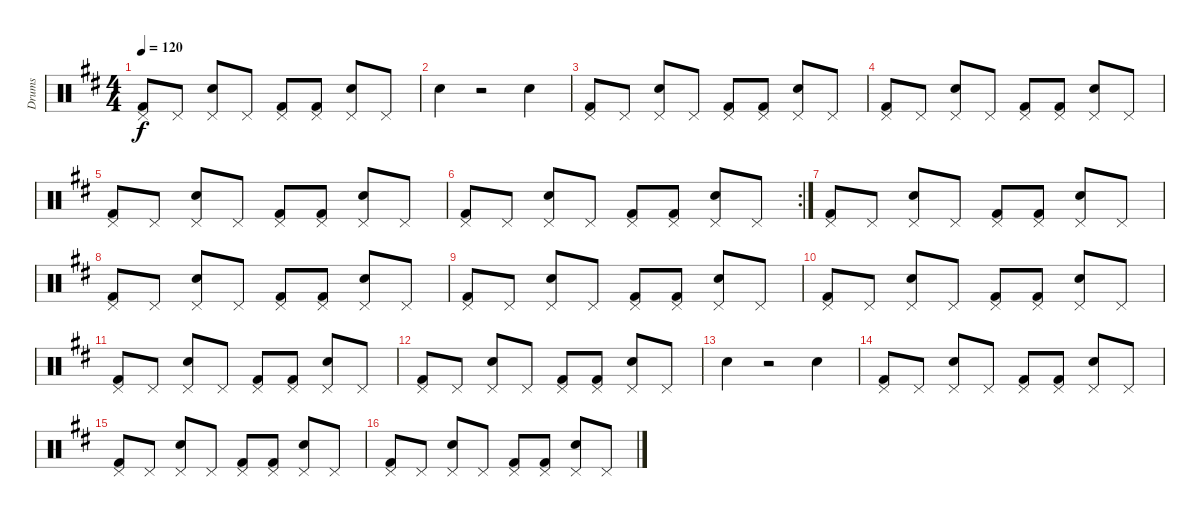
\track ("Drums" "Drums") {instrument percussion}
\staff {score}
\articulation defaults
\ts (4 4)
\tempo 120
\clef neutral
\ks d
("Pedal Hi-Hat (hit)" "Kick (hit) 2").8{dy f} "Pedal Hi-Hat (hit)".8 ("Pedal Hi-Hat (hit)" "Electric Snare (hit)").8 "Pedal Hi-Hat (hit)".8 ("Pedal Hi-Hat (hit)" "Kick (hit) 2").8 ("Pedal Hi-Hat (hit)" "Kick (hit) 2").8 ("Pedal Hi-Hat (hit)" "Electric Snare (hit)").8 "Pedal Hi-Hat (hit)".8 |
"Electric Snare (hit)".4 r.2 "Electric Snare (hit)".4 |
("Pedal Hi-Hat (hit)" "Kick (hit) 2").8 "Pedal Hi-Hat (hit)".8 ("Pedal Hi-Hat (hit)" "Electric Snare (hit)").8 "Pedal Hi-Hat (hit)".8 ("Pedal Hi-Hat (hit)" "Kick (hit) 2").8 ("Pedal Hi-Hat (hit)" "Kick (hit) 2").8 ("Pedal Hi-Hat (hit)" "Electric Snare (hit)").8 "Pedal Hi-Hat (hit)".8 |
("Pedal Hi-Hat (hit)" "Kick (hit) 2").8 "Pedal Hi-Hat (hit)".8 ("Pedal Hi-Hat (hit)" "Electric Snare (hit)").8 "Pedal Hi-Hat (hit)".8 ("Pedal Hi-Hat (hit)" "Kick (hit) 2").8 ("Pedal Hi-Hat (hit)" "Kick (hit) 2").8 ("Pedal Hi-Hat (hit)" "Electric Snare (hit)").8 "Pedal Hi-Hat (hit)".8 |
("Pedal Hi-Hat (hit)" "Kick (hit) 2").8 "Pedal Hi-Hat (hit)".8 ("Pedal Hi-Hat (hit)" "Electric Snare (hit)").8 "Pedal Hi-Hat (hit)".8 ("Pedal Hi-Hat (hit)" "Kick (hit) 2").8 ("Pedal Hi-Hat (hit)" "Kick (hit) 2").8 ("Pedal Hi-Hat (hit)" "Electric Snare (hit)").8 "Pedal Hi-Hat (hit)".8 |
\rc 2
("Pedal Hi-Hat (hit)" "Kick (hit) 2").8 "Pedal Hi-Hat (hit)".8 ("Pedal Hi-Hat (hit)" "Electric Snare (hit)").8 "Pedal Hi-Hat (hit)".8 ("Pedal Hi-Hat (hit)" "Kick (hit) 2").8 ("Pedal Hi-Hat (hit)" "Kick (hit) 2").8 ("Pedal Hi-Hat (hit)" "Electric Snare (hit)").8 "Pedal Hi-Hat (hit)".8 |
("Pedal Hi-Hat (hit)" "Kick (hit) 2").8 "Pedal Hi-Hat (hit)".8 ("Pedal Hi-Hat (hit)" "Electric Snare (hit)").8 "Pedal Hi-Hat (hit)".8 ("Pedal Hi-Hat (hit)" "Kick (hit) 2").8 ("Pedal Hi-Hat (hit)" "Kick (hit) 2").8 ("Pedal Hi-Hat (hit)" "Electric Snare (hit)").8 "Pedal Hi-Hat (hit)".8 |
("Pedal Hi-Hat (hit)" "Kick (hit) 2").8 "Pedal Hi-Hat (hit)".8 ("Pedal Hi-Hat (hit)" "Electric Snare (hit)").8 "Pedal Hi-Hat (hit)".8 ("Pedal Hi-Hat (hit)" "Kick (hit) 2").8 ("Pedal Hi-Hat (hit)" "Kick (hit) 2").8 ("Pedal Hi-Hat (hit)" "Electric Snare (hit)").8 "Pedal Hi-Hat (hit)".8 |
("Pedal Hi-Hat (hit)" "Kick (hit) 2").8 "Pedal Hi-Hat (hit)".8 ("Pedal Hi-Hat (hit)" "Electric Snare (hit)").8 "Pedal Hi-Hat (hit)".8 ("Pedal Hi-Hat (hit)" "Kick (hit) 2").8 ("Pedal Hi-Hat (hit)" "Kick (hit) 2").8 ("Pedal Hi-Hat (hit)" "Electric Snare (hit)").8 "Pedal Hi-Hat (hit)".8 |
("Pedal Hi-Hat (hit)" "Kick (hit) 2").8 "Pedal Hi-Hat (hit)".8 ("Pedal Hi-Hat (hit)" "Electric Snare (hit)").8 "Pedal Hi-Hat (hit)".8 ("Pedal Hi-Hat (hit)" "Kick (hit) 2").8 ("Pedal Hi-Hat (hit)" "Kick (hit) 2").8 ("Pedal Hi-Hat (hit)" "Electric Snare (hit)").8 "Pedal Hi-Hat (hit)".8 |
("Pedal Hi-Hat (hit)" "Kick (hit) 2").8 "Pedal Hi-Hat (hit)".8 ("Pedal Hi-Hat (hit)" "Electric Snare (hit)").8 "Pedal Hi-Hat (hit)".8 ("Pedal Hi-Hat (hit)" "Kick (hit) 2").8 ("Pedal Hi-Hat (hit)" "Kick (hit) 2").8 ("Pedal Hi-Hat (hit)" "Electric Snare (hit)").8 "Pedal Hi-Hat (hit)".8 |
("Pedal Hi-Hat (hit)" "Kick (hit) 2").8 "Pedal Hi-Hat (hit)".8 ("Pedal Hi-Hat (hit)" "Electric Snare (hit)").8 "Pedal Hi-Hat (hit)".8 ("Pedal Hi-Hat (hit)" "Kick (hit) 2").8 ("Pedal Hi-Hat (hit)" "Kick (hit) 2").8 ("Pedal Hi-Hat (hit)" "Electric Snare (hit)").8 "Pedal Hi-Hat (hit)".8 |
"Electric Snare (hit)".4 r.2 "Electric Snare (hit)".4 |
("Pedal Hi-Hat (hit)" "Kick (hit) 2").8 "Pedal Hi-Hat (hit)".8 ("Pedal Hi-Hat (hit)" "Electric Snare (hit)").8 "Pedal Hi-Hat (hit)".8 ("Pedal Hi-Hat (hit)" "Kick (hit) 2").8 ("Pedal Hi-Hat (hit)" "Kick (hit) 2").8 ("Pedal Hi-Hat (hit)" "Electric Snare (hit)").8 "Pedal Hi-Hat (hit)".8 |
("Pedal Hi-Hat (hit)" "Kick (hit) 2").8 "Pedal Hi-Hat (hit)".8 ("Pedal Hi-Hat (hit)" "Electric Snare (hit)").8 "Pedal Hi-Hat (hit)".8 ("Pedal Hi-Hat (hit)" "Kick (hit) 2").8 ("Pedal Hi-Hat (hit)" "Kick (hit) 2").8 ("Pedal Hi-Hat (hit)" "Electric Snare (hit)").8 "Pedal Hi-Hat (hit)".8 |
("Pedal Hi-Hat (hit)" "Kick (hit) 2").8 "Pedal Hi-Hat (hit)".8 ("Pedal Hi-Hat (hit)" "Electric Snare (hit)").8 "Pedal Hi-Hat (hit)".8 ("Pedal Hi-Hat (hit)" "Kick (hit) 2").8 ("Pedal Hi-Hat (hit)" "Kick (hit) 2").8 ("Pedal Hi-Hat (hit)" "Electric Snare (hit)").8 "Pedal Hi-Hat (hit)".8
